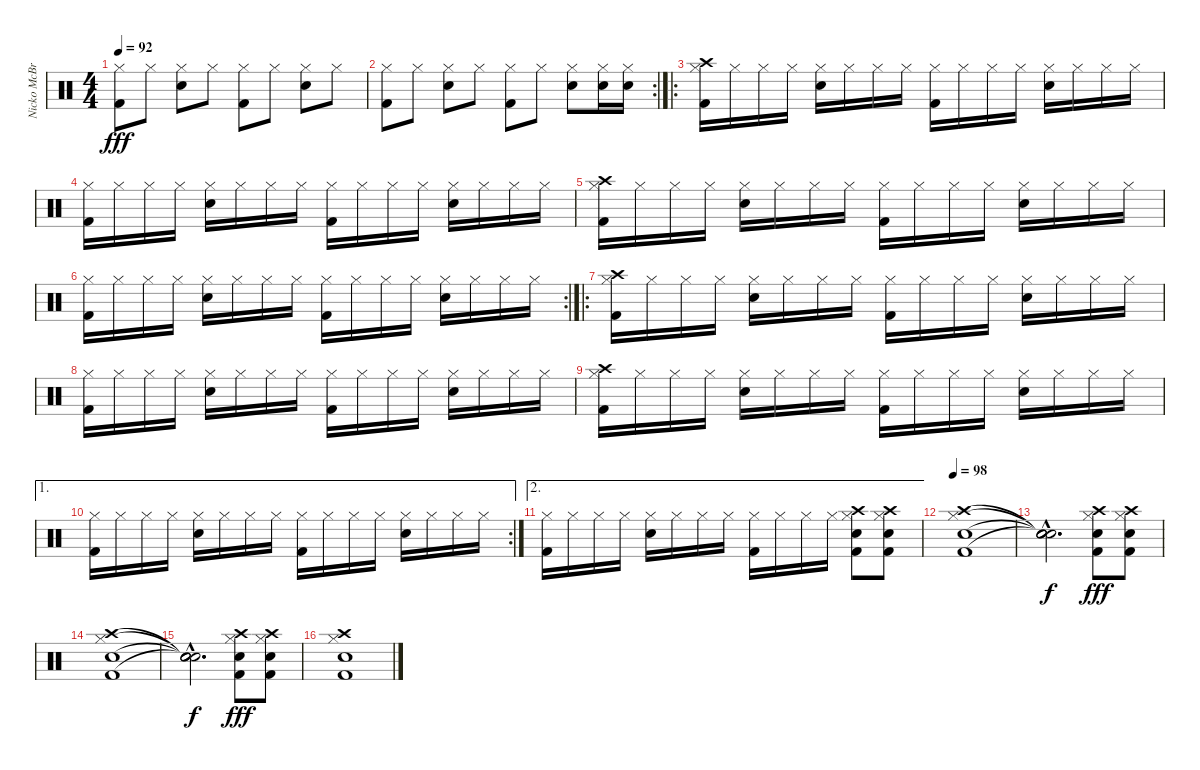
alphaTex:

\track ("Nicko McBrain" "Nicko McBr") {instrument percussion}
\staff {score}
\articulation defaults
\ts (4 4)
\tempo 92
\clef neutral
\ks c
("Hi-Hat (closed)" "Kick (hit) 2").8{dy fff} "Hi-Hat (closed)".8 ("Hi-Hat (closed)" "Snare (hit) 2").8 "Hi-Hat (closed)".8 ("Hi-Hat (closed)" "Kick (hit) 2").8 "Hi-Hat (closed)".8 ("Hi-Hat (closed)" "Snare (hit) 2").8 "Hi-Hat (closed)".8 |
\rc 2
("Hi-Hat (closed)" "Kick (hit) 2").8 "Hi-Hat (closed)".8 ("Hi-Hat (closed)" "Snare (hit) 2").8 "Hi-Hat (closed)".8 ("Hi-Hat (closed)" "Kick (hit) 2").8 "Hi-Hat (closed)".8 ("Hi-Hat (closed)" "Snare (hit) 2").8 ("Hi-Hat (closed)" "Snare (hit) 2").16 ("Hi-Hat (closed)" "Snare (hit) 2").16 |
\ro
("Hi-Hat (closed)" "Kick (hit) 2" "Crash high (hit)").16 "Hi-Hat (closed)".16 "Hi-Hat (closed)".16 "Hi-Hat (closed)".16 ("Hi-Hat (closed)" "Snare (hit) 2").16 "Hi-Hat (closed)".16 "Hi-Hat (closed)".16 "Hi-Hat (closed)".16 ("Hi-Hat (closed)" "Kick (hit) 2").16 "Hi-Hat (closed)".16 "Hi-Hat (closed)".16 "Hi-Hat (closed)".16 ("Hi-Hat (closed)" "Snare (hit) 2").16 "Hi-Hat (closed)".16 "Hi-Hat (closed)".16 "Hi-Hat (closed)".16 |
("Hi-Hat (closed)" "Kick (hit) 2").16 "Hi-Hat (closed)".16 "Hi-Hat (closed)".16 "Hi-Hat (closed)".16 ("Hi-Hat (closed)" "Snare (hit) 2").16 "Hi-Hat (closed)".16 "Hi-Hat (closed)".16 "Hi-Hat (closed)".16 ("Hi-Hat (closed)" "Kick (hit) 2").16 "Hi-Hat (closed)".16 "Hi-Hat (closed)".16 "Hi-Hat (closed)".16 ("Hi-Hat (closed)" "Snare (hit) 2").16 "Hi-Hat (closed)".16 "Hi-Hat (closed)".16 "Hi-Hat (closed)".16 |
("Hi-Hat (closed)" "Kick (hit) 2" "Crash high (hit)").16 "Hi-Hat (closed)".16 "Hi-Hat (closed)".16 "Hi-Hat (closed)".16 ("Hi-Hat (closed)" "Snare (hit) 2").16 "Hi-Hat (closed)".16 "Hi-Hat (closed)".16 "Hi-Hat (closed)".16 ("Hi-Hat (closed)" "Kick (hit) 2").16 "Hi-Hat (closed)".16 "Hi-Hat (closed)".16 "Hi-Hat (closed)".16 ("Hi-Hat (closed)" "Snare (hit) 2").16 "Hi-Hat (closed)".16 "Hi-Hat (closed)".16 "Hi-Hat (closed)".16 |
\rc 2
("Hi-Hat (closed)" "Kick (hit) 2").16 "Hi-Hat (closed)".16 "Hi-Hat (closed)".16 "Hi-Hat (closed)".16 ("Hi-Hat (closed)" "Snare (hit) 2").16 "Hi-Hat (closed)".16 "Hi-Hat (closed)".16 "Hi-Hat (closed)".16 ("Hi-Hat (closed)" "Kick (hit) 2").16 "Hi-Hat (closed)".16 "Hi-Hat (closed)".16 "Hi-Hat (closed)".16 ("Hi-Hat (closed)" "Snare (hit) 2").16 "Hi-Hat (closed)".16 "Hi-Hat (closed)".16 "Hi-Hat (closed)".16 |
\ro
("Hi-Hat (closed)" "Kick (hit) 2" "Crash high (hit)").16 "Hi-Hat (closed)".16 "Hi-Hat (closed)".16 "Hi-Hat (closed)".16 ("Hi-Hat (closed)" "Snare (hit) 2").16 "Hi-Hat (closed)".16 "Hi-Hat (closed)".16 "Hi-Hat (closed)".16 ("Hi-Hat (closed)" "Kick (hit) 2").16 "Hi-Hat (closed)".16 "Hi-Hat (closed)".16 "Hi-Hat (closed)".16 ("Hi-Hat (closed)" "Snare (hit) 2").16 "Hi-Hat (closed)".16 "Hi-Hat (closed)".16 "Hi-Hat (closed)".16 |
("Hi-Hat (closed)" "Kick (hit) 2").16 "Hi-Hat (closed)".16 "Hi-Hat (closed)".16 "Hi-Hat (closed)".16 ("Hi-Hat (closed)" "Snare (hit) 2").16 "Hi-Hat (closed)".16 "Hi-Hat (closed)".16 "Hi-Hat (closed)".16 ("Hi-Hat (closed)" "Kick (hit) 2").16 "Hi-Hat (closed)".16 "Hi-Hat (closed)".16 "Hi-Hat (closed)".16 ("Hi-Hat (closed)" "Snare (hit) 2").16 "Hi-Hat (closed)".16 "Hi-Hat (closed)".16 "Hi-Hat (closed)".16 |
("Hi-Hat (closed)" "Kick (hit) 2" "Crash high (hit)").16 "Hi-Hat (closed)".16 "Hi-Hat (closed)".16 "Hi-Hat (closed)".16 ("Hi-Hat (closed)" "Snare (hit) 2").16 "Hi-Hat (closed)".16 "Hi-Hat (closed)".16 "Hi-Hat (closed)".16 ("Hi-Hat (closed)" "Kick (hit) 2").16 "Hi-Hat (closed)".16 "Hi-Hat (closed)".16 "Hi-Hat (closed)".16 ("Hi-Hat (closed)" "Snare (hit) 2").16 "Hi-Hat (closed)".16 "Hi-Hat (closed)".16 "Hi-Hat (closed)".16 |
\ae 1
\rc 2
("Hi-Hat (closed)" "Kick (hit) 2").16 "Hi-Hat (closed)".16 "Hi-Hat (closed)".16 "Hi-Hat (closed)".16 ("Hi-Hat (closed)" "Snare (hit) 2").16 "Hi-Hat (closed)".16 "Hi-Hat (closed)".16 "Hi-Hat (closed)".16 ("Hi-Hat (closed)" "Kick (hit) 2").16 "Hi-Hat (closed)".16 "Hi-Hat (closed)".16 "Hi-Hat (closed)".16 ("Hi-Hat (closed)" "Snare (hit) 2").16 "Hi-Hat (closed)".16 "Hi-Hat (closed)".16 "Hi-Hat (closed)".16 |
\ae 2
("Hi-Hat (closed)" "Kick (hit) 2").16 "Hi-Hat (closed)".16 "Hi-Hat (closed)".16 "Hi-Hat (closed)".16 ("Hi-Hat (closed)" "Snare (hit) 2").16 "Hi-Hat (closed)".16 "Hi-Hat (closed)".16 "Hi-Hat (closed)".16 ("Hi-Hat (closed)" "Kick (hit) 2").16 "Hi-Hat (closed)".16 "Hi-Hat (closed)".16 "Hi-Hat (closed)".16 ("Hi-Hat (closed)" "Kick (hit) 2" "Snare (hit) 2" "Crash high (hit)").8 ("Hi-Hat (closed)" "Kick (hit) 2" "Snare (hit) 2" "Crash high (hit)").8 |
\tempo 98
("Hi-Hat (closed)" "Kick (hit) 2" "Snare (hit) 2" "Crash high (hit)").1 |
("Snare (hit)"{hac t} "Snare (hit)"{hac t} "Snare (hit)"{hac t} "Snare (hit)"{hac t}).2{d dy f} ("Hi-Hat (closed)" "Kick (hit) 2" "Snare (hit) 2" "Crash high (hit)").8{dy fff} ("Hi-Hat (closed)" "Kick (hit) 2" "Snare (hit) 2" "Crash high (hit)").8 |
("Hi-Hat (closed)" "Kick (hit) 2" "Snare (hit) 2" "Crash high (hit)").1 |
("Snare (hit)"{hac t} "Snare (hit)"{hac t} "Snare (hit)"{hac t} "Snare (hit)"{hac t}).2{d dy f} ("Hi-Hat (closed)" "Kick (hit) 2" "Snare (hit) 2" "Crash high (hit)").8{dy fff} ("Hi-Hat (closed)" "Kick (hit) 2" "Snare (hit) 2" "Crash high (hit)").8 |
("Hi-Hat (closed)" "Kick (hit) 2" "Snare (hit) 2" "Crash high (hit)").1
